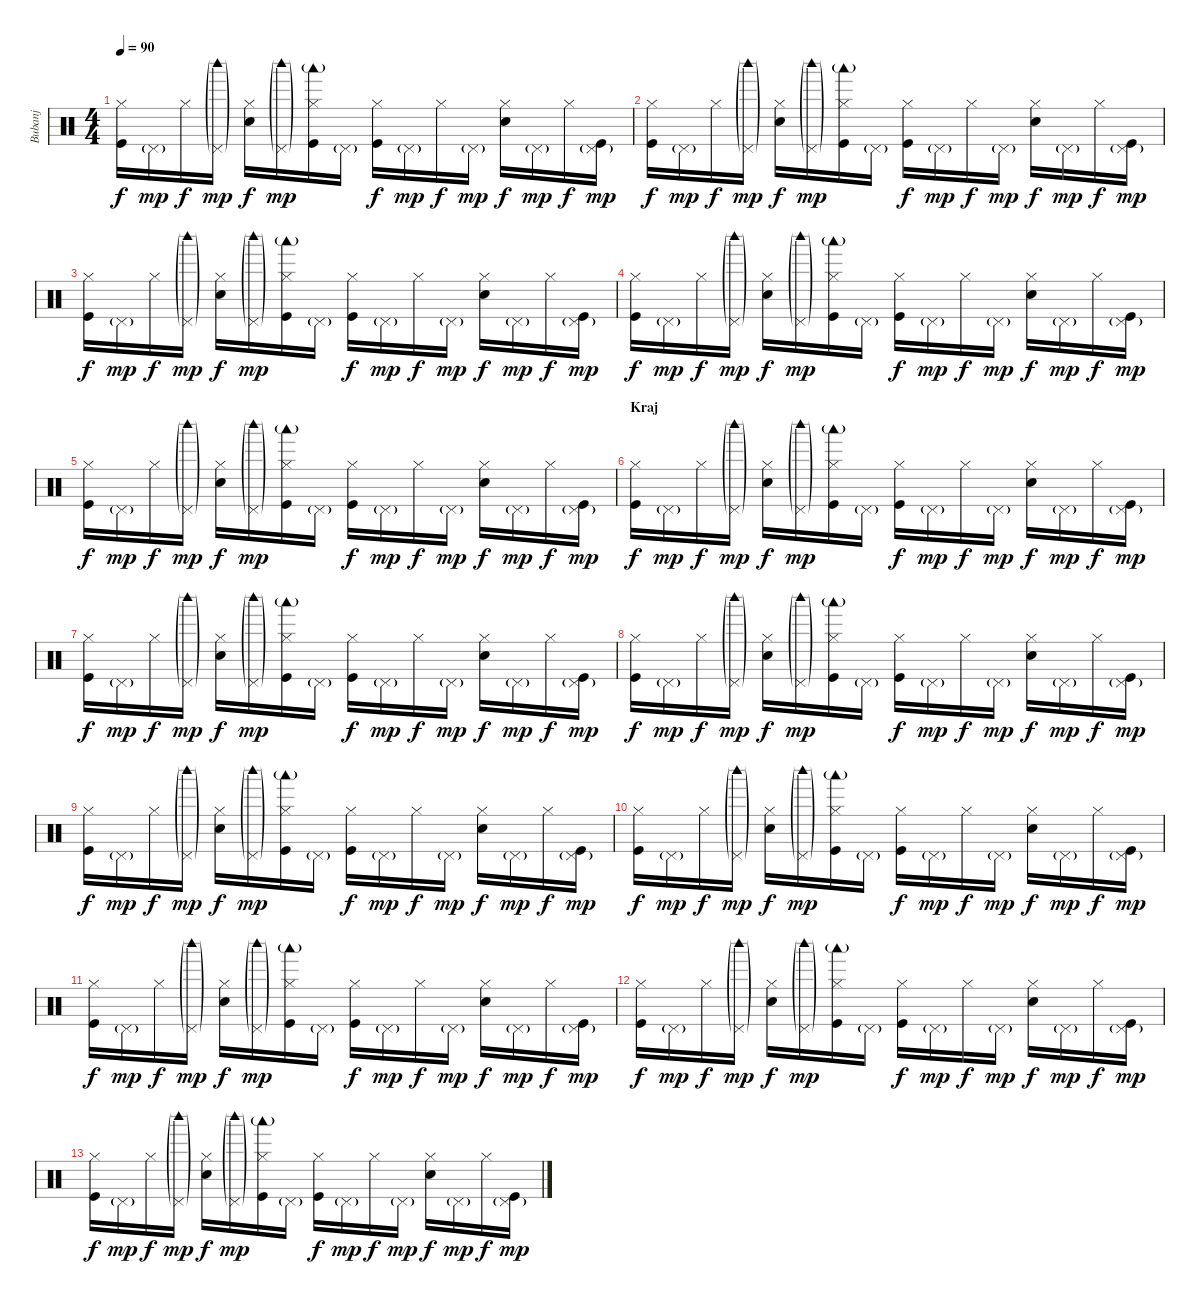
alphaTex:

\track ("Bubanj" "Bubanj") {instrument percussion}
\staff {score}
\articulation defaults
\ts (4 4)
\tempo 90
\clef neutral
\ks c
("Hi-Hat (closed)" "Kick (hit)").16{dy f} "Pedal Hi-Hat (hit)"{g}.16{dy mp} "Hi-Hat (closed)".16{dy f} ("Pedal Hi-Hat (hit)"{g} "Woodblock high (hit)"{g}).16{dy mp} ("Hi-Hat (closed)" "Snare (hit) 2").16{dy f} ("Pedal Hi-Hat (hit)"{g} "Woodblock high (hit)"{g}).16{dy mp} ("Hi-Hat (closed)" "Woodblock low (hit)"{g} "Kick (hit)").16 "Pedal Hi-Hat (hit)"{g}.16 ("Hi-Hat (closed)" "Kick (hit)").16{dy f} "Pedal Hi-Hat (hit)"{g}.16{dy mp} "Hi-Hat (closed)".16{dy f} "Pedal Hi-Hat (hit)"{g}.16{dy mp} ("Hi-Hat (closed)" "Snare (hit) 2").16{dy f} "Pedal Hi-Hat (hit)"{g}.16{dy mp} "Hi-Hat (closed)".16{dy f} ("Pedal Hi-Hat (hit)"{g} "Kick (hit)").16{dy mp} |
("Hi-Hat (closed)" "Kick (hit)").16{dy f} "Pedal Hi-Hat (hit)"{g}.16{dy mp} "Hi-Hat (closed)".16{dy f} ("Pedal Hi-Hat (hit)"{g} "Woodblock high (hit)"{g}).16{dy mp} ("Hi-Hat (closed)" "Snare (hit) 2").16{dy f} ("Pedal Hi-Hat (hit)"{g} "Woodblock high (hit)"{g}).16{dy mp} ("Hi-Hat (closed)" "Woodblock low (hit)"{g} "Kick (hit)").16 "Pedal Hi-Hat (hit)"{g}.16 ("Hi-Hat (closed)" "Kick (hit)").16{dy f} "Pedal Hi-Hat (hit)"{g}.16{dy mp} "Hi-Hat (closed)".16{dy f} "Pedal Hi-Hat (hit)"{g}.16{dy mp} ("Hi-Hat (closed)" "Snare (hit) 2").16{dy f} "Pedal Hi-Hat (hit)"{g}.16{dy mp} "Hi-Hat (closed)".16{dy f} ("Pedal Hi-Hat (hit)"{g} "Kick (hit)").16{dy mp} |
("Hi-Hat (closed)" "Kick (hit)").16{dy f} "Pedal Hi-Hat (hit)"{g}.16{dy mp} "Hi-Hat (closed)".16{dy f} ("Pedal Hi-Hat (hit)"{g} "Woodblock high (hit)"{g}).16{dy mp} ("Hi-Hat (closed)" "Snare (hit) 2").16{dy f} ("Pedal Hi-Hat (hit)"{g} "Woodblock high (hit)"{g}).16{dy mp} ("Hi-Hat (closed)" "Woodblock low (hit)"{g} "Kick (hit)").16 "Pedal Hi-Hat (hit)"{g}.16 ("Hi-Hat (closed)" "Kick (hit)").16{dy f} "Pedal Hi-Hat (hit)"{g}.16{dy mp} "Hi-Hat (closed)".16{dy f} "Pedal Hi-Hat (hit)"{g}.16{dy mp} ("Hi-Hat (closed)" "Snare (hit) 2").16{dy f} "Pedal Hi-Hat (hit)"{g}.16{dy mp} "Hi-Hat (closed)".16{dy f} ("Pedal Hi-Hat (hit)"{g} "Kick (hit)").16{dy mp} |
("Hi-Hat (closed)" "Kick (hit)").16{dy f} "Pedal Hi-Hat (hit)"{g}.16{dy mp} "Hi-Hat (closed)".16{dy f} ("Pedal Hi-Hat (hit)"{g} "Woodblock high (hit)"{g}).16{dy mp} ("Hi-Hat (closed)" "Snare (hit) 2").16{dy f} ("Pedal Hi-Hat (hit)"{g} "Woodblock high (hit)"{g}).16{dy mp} ("Hi-Hat (closed)" "Woodblock low (hit)"{g} "Kick (hit)").16 "Pedal Hi-Hat (hit)"{g}.16 ("Hi-Hat (closed)" "Kick (hit)").16{dy f} "Pedal Hi-Hat (hit)"{g}.16{dy mp} "Hi-Hat (closed)".16{dy f} "Pedal Hi-Hat (hit)"{g}.16{dy mp} ("Hi-Hat (closed)" "Snare (hit) 2").16{dy f} "Pedal Hi-Hat (hit)"{g}.16{dy mp} "Hi-Hat (closed)".16{dy f} ("Pedal Hi-Hat (hit)"{g} "Kick (hit)").16{dy mp} |
("Hi-Hat (closed)" "Kick (hit)").16{dy f} "Pedal Hi-Hat (hit)"{g}.16{dy mp} "Hi-Hat (closed)".16{dy f} ("Pedal Hi-Hat (hit)"{g} "Woodblock high (hit)"{g}).16{dy mp} ("Hi-Hat (closed)" "Snare (hit) 2").16{dy f} ("Pedal Hi-Hat (hit)"{g} "Woodblock high (hit)"{g}).16{dy mp} ("Hi-Hat (closed)" "Woodblock low (hit)"{g} "Kick (hit)").16 "Pedal Hi-Hat (hit)"{g}.16 ("Hi-Hat (closed)" "Kick (hit)").16{dy f} "Pedal Hi-Hat (hit)"{g}.16{dy mp} "Hi-Hat (closed)".16{dy f} "Pedal Hi-Hat (hit)"{g}.16{dy mp} ("Hi-Hat (closed)" "Snare (hit) 2").16{dy f} "Pedal Hi-Hat (hit)"{g}.16{dy mp} "Hi-Hat (closed)".16{dy f} ("Pedal Hi-Hat (hit)"{g} "Kick (hit)").16{dy mp} |
\section ("" "Kraj")
("Hi-Hat (closed)" "Kick (hit)").16{dy f} "Pedal Hi-Hat (hit)"{g}.16{dy mp} "Hi-Hat (closed)".16{dy f} ("Pedal Hi-Hat (hit)"{g} "Woodblock high (hit)"{g}).16{dy mp} ("Hi-Hat (closed)" "Snare (hit) 2").16{dy f} ("Pedal Hi-Hat (hit)"{g} "Woodblock high (hit)"{g}).16{dy mp} ("Hi-Hat (closed)" "Woodblock low (hit)"{g} "Kick (hit)").16 "Pedal Hi-Hat (hit)"{g}.16 ("Hi-Hat (closed)" "Kick (hit)").16{dy f} "Pedal Hi-Hat (hit)"{g}.16{dy mp} "Hi-Hat (closed)".16{dy f} "Pedal Hi-Hat (hit)"{g}.16{dy mp} ("Hi-Hat (closed)" "Snare (hit) 2").16{dy f} "Pedal Hi-Hat (hit)"{g}.16{dy mp} "Hi-Hat (closed)".16{dy f} ("Pedal Hi-Hat (hit)"{g} "Kick (hit)").16{dy mp} |
("Hi-Hat (closed)" "Kick (hit)").16{dy f} "Pedal Hi-Hat (hit)"{g}.16{dy mp} "Hi-Hat (closed)".16{dy f} ("Pedal Hi-Hat (hit)"{g} "Woodblock high (hit)"{g}).16{dy mp} ("Hi-Hat (closed)" "Snare (hit) 2").16{dy f} ("Pedal Hi-Hat (hit)"{g} "Woodblock high (hit)"{g}).16{dy mp} ("Hi-Hat (closed)" "Woodblock low (hit)"{g} "Kick (hit)").16 "Pedal Hi-Hat (hit)"{g}.16 ("Hi-Hat (closed)" "Kick (hit)").16{dy f} "Pedal Hi-Hat (hit)"{g}.16{dy mp} "Hi-Hat (closed)".16{dy f} "Pedal Hi-Hat (hit)"{g}.16{dy mp} ("Hi-Hat (closed)" "Snare (hit) 2").16{dy f} "Pedal Hi-Hat (hit)"{g}.16{dy mp} "Hi-Hat (closed)".16{dy f} ("Pedal Hi-Hat (hit)"{g} "Kick (hit)").16{dy mp} |
("Hi-Hat (closed)" "Kick (hit)").16{dy f} "Pedal Hi-Hat (hit)"{g}.16{dy mp} "Hi-Hat (closed)".16{dy f} ("Pedal Hi-Hat (hit)"{g} "Woodblock high (hit)"{g}).16{dy mp} ("Hi-Hat (closed)" "Snare (hit) 2").16{dy f} ("Pedal Hi-Hat (hit)"{g} "Woodblock high (hit)"{g}).16{dy mp} ("Hi-Hat (closed)" "Woodblock low (hit)"{g} "Kick (hit)").16 "Pedal Hi-Hat (hit)"{g}.16 ("Hi-Hat (closed)" "Kick (hit)").16{dy f} "Pedal Hi-Hat (hit)"{g}.16{dy mp} "Hi-Hat (closed)".16{dy f} "Pedal Hi-Hat (hit)"{g}.16{dy mp} ("Hi-Hat (closed)" "Snare (hit) 2").16{dy f} "Pedal Hi-Hat (hit)"{g}.16{dy mp} "Hi-Hat (closed)".16{dy f} ("Pedal Hi-Hat (hit)"{g} "Kick (hit)").16{dy mp} |
("Hi-Hat (closed)" "Kick (hit)").16{dy f} "Pedal Hi-Hat (hit)"{g}.16{dy mp} "Hi-Hat (closed)".16{dy f} ("Pedal Hi-Hat (hit)"{g} "Woodblock high (hit)"{g}).16{dy mp} ("Hi-Hat (closed)" "Snare (hit) 2").16{dy f} ("Pedal Hi-Hat (hit)"{g} "Woodblock high (hit)"{g}).16{dy mp} ("Hi-Hat (closed)" "Woodblock low (hit)"{g} "Kick (hit)").16 "Pedal Hi-Hat (hit)"{g}.16 ("Hi-Hat (closed)" "Kick (hit)").16{dy f} "Pedal Hi-Hat (hit)"{g}.16{dy mp} "Hi-Hat (closed)".16{dy f} "Pedal Hi-Hat (hit)"{g}.16{dy mp} ("Hi-Hat (closed)" "Snare (hit) 2").16{dy f} "Pedal Hi-Hat (hit)"{g}.16{dy mp} "Hi-Hat (closed)".16{dy f} ("Pedal Hi-Hat (hit)"{g} "Kick (hit)").16{dy mp} |
("Hi-Hat (closed)" "Kick (hit)").16{dy f} "Pedal Hi-Hat (hit)"{g}.16{dy mp} "Hi-Hat (closed)".16{dy f} ("Pedal Hi-Hat (hit)"{g} "Woodblock high (hit)"{g}).16{dy mp} ("Hi-Hat (closed)" "Snare (hit) 2").16{dy f} ("Pedal Hi-Hat (hit)"{g} "Woodblock high (hit)"{g}).16{dy mp} ("Hi-Hat (closed)" "Woodblock low (hit)"{g} "Kick (hit)").16 "Pedal Hi-Hat (hit)"{g}.16 ("Hi-Hat (closed)" "Kick (hit)").16{dy f} "Pedal Hi-Hat (hit)"{g}.16{dy mp} "Hi-Hat (closed)".16{dy f} "Pedal Hi-Hat (hit)"{g}.16{dy mp} ("Hi-Hat (closed)" "Snare (hit) 2").16{dy f} "Pedal Hi-Hat (hit)"{g}.16{dy mp} "Hi-Hat (closed)".16{dy f} ("Pedal Hi-Hat (hit)"{g} "Kick (hit)").16{dy mp} |
("Hi-Hat (closed)" "Kick (hit)").16{dy f} "Pedal Hi-Hat (hit)"{g}.16{dy mp} "Hi-Hat (closed)".16{dy f} ("Pedal Hi-Hat (hit)"{g} "Woodblock high (hit)"{g}).16{dy mp} ("Hi-Hat (closed)" "Snare (hit) 2").16{dy f} ("Pedal Hi-Hat (hit)"{g} "Woodblock high (hit)"{g}).16{dy mp} ("Hi-Hat (closed)" "Woodblock low (hit)"{g} "Kick (hit)").16 "Pedal Hi-Hat (hit)"{g}.16 ("Hi-Hat (closed)" "Kick (hit)").16{dy f} "Pedal Hi-Hat (hit)"{g}.16{dy mp} "Hi-Hat (closed)".16{dy f} "Pedal Hi-Hat (hit)"{g}.16{dy mp} ("Hi-Hat (closed)" "Snare (hit) 2").16{dy f} "Pedal Hi-Hat (hit)"{g}.16{dy mp} "Hi-Hat (closed)".16{dy f} ("Pedal Hi-Hat (hit)"{g} "Kick (hit)").16{dy mp} |
("Hi-Hat (closed)" "Kick (hit)").16{dy f} "Pedal Hi-Hat (hit)"{g}.16{dy mp} "Hi-Hat (closed)".16{dy f} ("Pedal Hi-Hat (hit)"{g} "Woodblock high (hit)"{g}).16{dy mp} ("Hi-Hat (closed)" "Snare (hit) 2").16{dy f} ("Pedal Hi-Hat (hit)"{g} "Woodblock high (hit)"{g}).16{dy mp} ("Hi-Hat (closed)" "Woodblock low (hit)"{g} "Kick (hit)").16 "Pedal Hi-Hat (hit)"{g}.16 ("Hi-Hat (closed)" "Kick (hit)").16{dy f} "Pedal Hi-Hat (hit)"{g}.16{dy mp} "Hi-Hat (closed)".16{dy f} "Pedal Hi-Hat (hit)"{g}.16{dy mp} ("Hi-Hat (closed)" "Snare (hit) 2").16{dy f} "Pedal Hi-Hat (hit)"{g}.16{dy mp} "Hi-Hat (closed)".16{dy f} ("Pedal Hi-Hat (hit)"{g} "Kick (hit)").16{dy mp} |
("Hi-Hat (closed)" "Kick (hit)").16{dy f} "Pedal Hi-Hat (hit)"{g}.16{dy mp} "Hi-Hat (closed)".16{dy f} ("Pedal Hi-Hat (hit)"{g} "Woodblock high (hit)"{g}).16{dy mp} ("Hi-Hat (closed)" "Snare (hit) 2").16{dy f} ("Pedal Hi-Hat (hit)"{g} "Woodblock high (hit)"{g}).16{dy mp} ("Hi-Hat (closed)" "Woodblock low (hit)"{g} "Kick (hit)").16 "Pedal Hi-Hat (hit)"{g}.16 ("Hi-Hat (closed)" "Kick (hit)").16{dy f} "Pedal Hi-Hat (hit)"{g}.16{dy mp} "Hi-Hat (closed)".16{dy f} "Pedal Hi-Hat (hit)"{g}.16{dy mp} ("Hi-Hat (closed)" "Snare (hit) 2").16{dy f} "Pedal Hi-Hat (hit)"{g}.16{dy mp} "Hi-Hat (closed)".16{dy f} ("Pedal Hi-Hat (hit)"{g} "Kick (hit)").16{dy mp}
